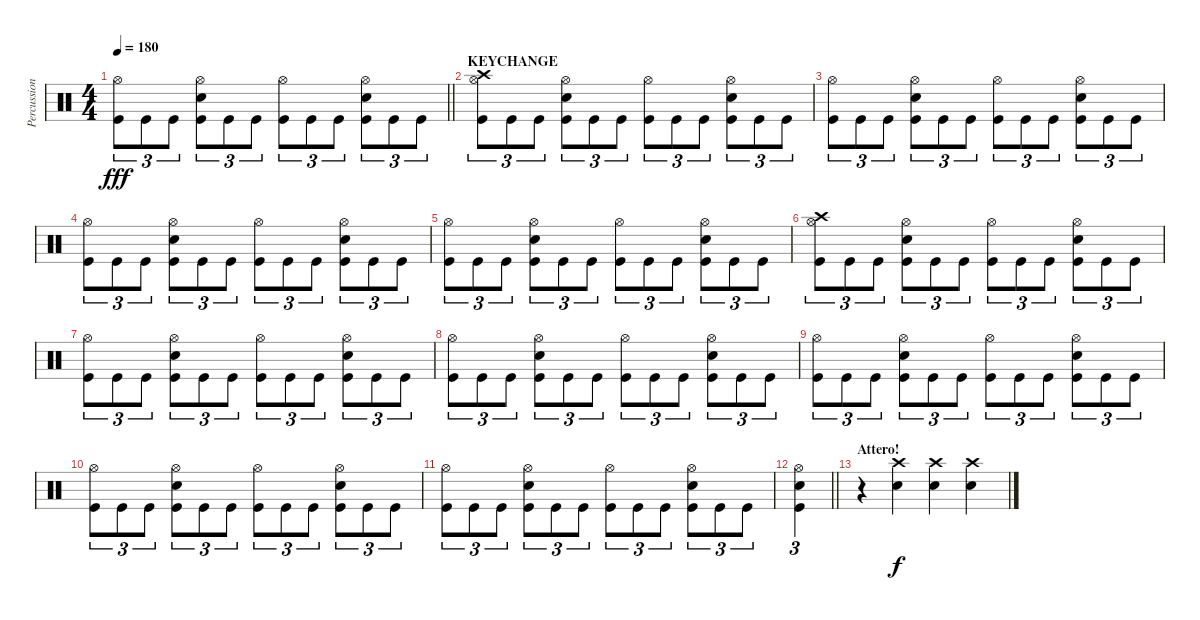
\track ("Percussion" "Percussion") {instrument percussion}
\staff {score}
\articulation defaults
\ts (4 4)
\tempo 180
\clef neutral
\barLineRight lightlight
\ks c
("Hi-Hat (open)" "Kick (hit)").8{tu (3 2) dy fff} "Kick (hit)".8{tu (3 2)} "Kick (hit)".8{tu (3 2)} ("Hi-Hat (open)" "Electric Snare (hit)" "Kick (hit)").8{tu (3 2)} "Kick (hit)".8{tu (3 2)} "Kick (hit)".8{tu (3 2)} ("Hi-Hat (open)" "Kick (hit)").8{tu (3 2)} "Kick (hit)".8{tu (3 2)} "Kick (hit)".8{tu (3 2)} ("Hi-Hat (open)" "Electric Snare (hit)" "Kick (hit)").8{tu (3 2)} "Kick (hit)".8{tu (3 2)} "Kick (hit)".8{tu (3 2)} |
\section ("" "KEYCHANGE")
("Crash high (hit)" "Hi-Hat (open)" "Kick (hit)").8{tu (3 2)} "Kick (hit)".8{tu (3 2)} "Kick (hit)".8{tu (3 2)} ("Hi-Hat (open)" "Electric Snare (hit)" "Kick (hit)").8{tu (3 2)} "Kick (hit)".8{tu (3 2)} "Kick (hit)".8{tu (3 2)} ("Hi-Hat (open)" "Kick (hit)").8{tu (3 2)} "Kick (hit)".8{tu (3 2)} "Kick (hit)".8{tu (3 2)} ("Hi-Hat (open)" "Electric Snare (hit)" "Kick (hit)").8{tu (3 2)} "Kick (hit)".8{tu (3 2)} "Kick (hit)".8{tu (3 2)} |
("Hi-Hat (open)" "Kick (hit)").8{tu (3 2)} "Kick (hit)".8{tu (3 2)} "Kick (hit)".8{tu (3 2)} ("Hi-Hat (open)" "Electric Snare (hit)" "Kick (hit)").8{tu (3 2)} "Kick (hit)".8{tu (3 2)} "Kick (hit)".8{tu (3 2)} ("Hi-Hat (open)" "Kick (hit)").8{tu (3 2)} "Kick (hit)".8{tu (3 2)} "Kick (hit)".8{tu (3 2)} ("Hi-Hat (open)" "Electric Snare (hit)" "Kick (hit)").8{tu (3 2)} "Kick (hit)".8{tu (3 2)} "Kick (hit)".8{tu (3 2)} |
("Hi-Hat (open)" "Kick (hit)").8{tu (3 2)} "Kick (hit)".8{tu (3 2)} "Kick (hit)".8{tu (3 2)} ("Hi-Hat (open)" "Electric Snare (hit)" "Kick (hit)").8{tu (3 2)} "Kick (hit)".8{tu (3 2)} "Kick (hit)".8{tu (3 2)} ("Hi-Hat (open)" "Kick (hit)").8{tu (3 2)} "Kick (hit)".8{tu (3 2)} "Kick (hit)".8{tu (3 2)} ("Hi-Hat (open)" "Electric Snare (hit)" "Kick (hit)").8{tu (3 2)} "Kick (hit)".8{tu (3 2)} "Kick (hit)".8{tu (3 2)} |
("Hi-Hat (open)" "Kick (hit)").8{tu (3 2)} "Kick (hit)".8{tu (3 2)} "Kick (hit)".8{tu (3 2)} ("Hi-Hat (open)" "Electric Snare (hit)" "Kick (hit)").8{tu (3 2)} "Kick (hit)".8{tu (3 2)} "Kick (hit)".8{tu (3 2)} ("Hi-Hat (open)" "Kick (hit)").8{tu (3 2)} "Kick (hit)".8{tu (3 2)} "Kick (hit)".8{tu (3 2)} ("Hi-Hat (open)" "Electric Snare (hit)" "Kick (hit)").8{tu (3 2)} "Kick (hit)".8{tu (3 2)} "Kick (hit)".8{tu (3 2)} |
("Crash high (hit)" "Hi-Hat (open)" "Kick (hit)").8{tu (3 2)} "Kick (hit)".8{tu (3 2)} "Kick (hit)".8{tu (3 2)} ("Hi-Hat (open)" "Electric Snare (hit)" "Kick (hit)").8{tu (3 2)} "Kick (hit)".8{tu (3 2)} "Kick (hit)".8{tu (3 2)} ("Hi-Hat (open)" "Kick (hit)").8{tu (3 2)} "Kick (hit)".8{tu (3 2)} "Kick (hit)".8{tu (3 2)} ("Hi-Hat (open)" "Electric Snare (hit)" "Kick (hit)").8{tu (3 2)} "Kick (hit)".8{tu (3 2)} "Kick (hit)".8{tu (3 2)} |
("Hi-Hat (open)" "Kick (hit)").8{tu (3 2)} "Kick (hit)".8{tu (3 2)} "Kick (hit)".8{tu (3 2)} ("Hi-Hat (open)" "Electric Snare (hit)" "Kick (hit)").8{tu (3 2)} "Kick (hit)".8{tu (3 2)} "Kick (hit)".8{tu (3 2)} ("Hi-Hat (open)" "Kick (hit)").8{tu (3 2)} "Kick (hit)".8{tu (3 2)} "Kick (hit)".8{tu (3 2)} ("Hi-Hat (open)" "Electric Snare (hit)" "Kick (hit)").8{tu (3 2)} "Kick (hit)".8{tu (3 2)} "Kick (hit)".8{tu (3 2)} |
("Hi-Hat (open)" "Kick (hit)").8{tu (3 2)} "Kick (hit)".8{tu (3 2)} "Kick (hit)".8{tu (3 2)} ("Hi-Hat (open)" "Electric Snare (hit)" "Kick (hit)").8{tu (3 2)} "Kick (hit)".8{tu (3 2)} "Kick (hit)".8{tu (3 2)} ("Hi-Hat (open)" "Kick (hit)").8{tu (3 2)} "Kick (hit)".8{tu (3 2)} "Kick (hit)".8{tu (3 2)} ("Hi-Hat (open)" "Electric Snare (hit)" "Kick (hit)").8{tu (3 2)} "Kick (hit)".8{tu (3 2)} "Kick (hit)".8{tu (3 2)} |
("Hi-Hat (open)" "Kick (hit)").8{tu (3 2)} "Kick (hit)".8{tu (3 2)} "Kick (hit)".8{tu (3 2)} ("Hi-Hat (open)" "Electric Snare (hit)" "Kick (hit)").8{tu (3 2)} "Kick (hit)".8{tu (3 2)} "Kick (hit)".8{tu (3 2)} ("Hi-Hat (open)" "Kick (hit)").8{tu (3 2)} "Kick (hit)".8{tu (3 2)} "Kick (hit)".8{tu (3 2)} ("Hi-Hat (open)" "Electric Snare (hit)" "Kick (hit)").8{tu (3 2)} "Kick (hit)".8{tu (3 2)} "Kick (hit)".8{tu (3 2)} |
("Hi-Hat (open)" "Kick (hit)").8{tu (3 2)} "Kick (hit)".8{tu (3 2)} "Kick (hit)".8{tu (3 2)} ("Hi-Hat (open)" "Electric Snare (hit)" "Kick (hit)").8{tu (3 2)} "Kick (hit)".8{tu (3 2)} "Kick (hit)".8{tu (3 2)} ("Hi-Hat (open)" "Kick (hit)").8{tu (3 2)} "Kick (hit)".8{tu (3 2)} "Kick (hit)".8{tu (3 2)} ("Hi-Hat (open)" "Electric Snare (hit)" "Kick (hit)").8{tu (3 2)} "Kick (hit)".8{tu (3 2)} "Kick (hit)".8{tu (3 2)} |
("Hi-Hat (open)" "Kick (hit)").8{tu (3 2)} "Kick (hit)".8{tu (3 2)} "Kick (hit)".8{tu (3 2)} ("Hi-Hat (open)" "Electric Snare (hit)" "Kick (hit)").8{tu (3 2)} "Kick (hit)".8{tu (3 2)} "Kick (hit)".8{tu (3 2)} ("Hi-Hat (open)" "Kick (hit)").8{tu (3 2)} "Kick (hit)".8{tu (3 2)} "Kick (hit)".8{tu (3 2)} ("Hi-Hat (open)" "Electric Snare (hit)" "Kick (hit)").8{tu (3 2)} "Kick (hit)".8{tu (3 2)} "Kick (hit)".8{tu (3 2)} |
\barLineRight lightlight
("Hi-Hat (open)" "Electric Snare (hit)" "Kick (hit)").4{tu (3 2)} |
\section ("" "Attero!")
r.4 ("Crash high (hit)" "Electric Snare (hit)").4{dy f} ("Crash high (hit)" "Electric Snare (hit)").4 ("Crash high (hit)" "Electric Snare (hit)").4
